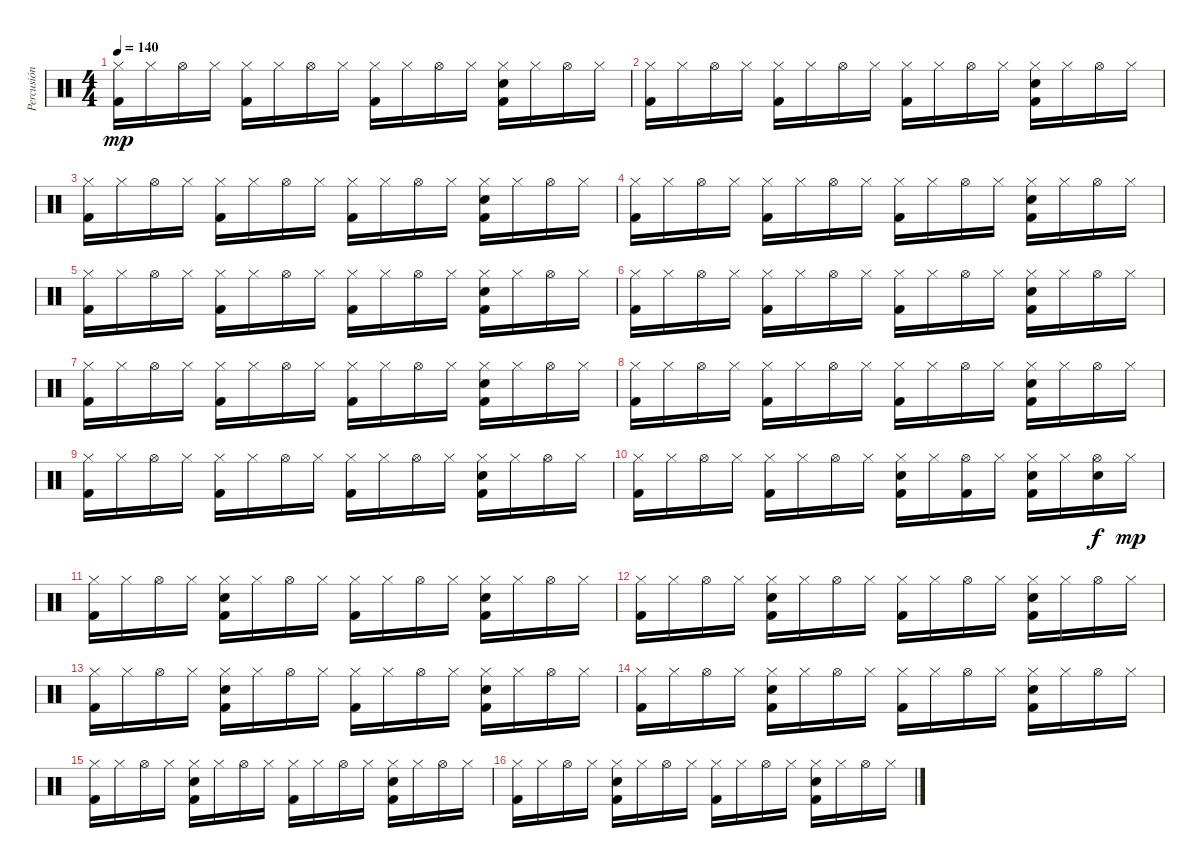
\track ("Percusión" "Percusión") {instrument percussion}
\staff {score}
\articulation defaults
\ts (4 4)
\tempo 140
\clef neutral
\ks c
("Hi-Hat (closed)" "Kick (hit) 2").16{dy mp} "Hi-Hat (closed)".16 "Hi-Hat (open)".16 "Hi-Hat (closed)".16 ("Hi-Hat (closed)" "Kick (hit) 2").16 "Hi-Hat (closed)".16 "Hi-Hat (open)".16 "Hi-Hat (closed)".16 ("Hi-Hat (closed)" "Kick (hit) 2").16 "Hi-Hat (closed)".16 "Hi-Hat (open)".16 "Hi-Hat (closed)".16 ("Hi-Hat (closed)" "Electric Snare (hit)" "Kick (hit) 2").16 "Hi-Hat (closed)".16 "Hi-Hat (open)".16 "Hi-Hat (closed)".16 |
("Hi-Hat (closed)" "Kick (hit) 2").16 "Hi-Hat (closed)".16 "Hi-Hat (open)".16 "Hi-Hat (closed)".16 ("Hi-Hat (closed)" "Kick (hit) 2").16 "Hi-Hat (closed)".16 "Hi-Hat (open)".16 "Hi-Hat (closed)".16 ("Hi-Hat (closed)" "Kick (hit) 2").16 "Hi-Hat (closed)".16 "Hi-Hat (open)".16 "Hi-Hat (closed)".16 ("Hi-Hat (closed)" "Electric Snare (hit)" "Kick (hit) 2").16 "Hi-Hat (closed)".16 "Hi-Hat (open)".16 "Hi-Hat (closed)".16 |
("Hi-Hat (closed)" "Kick (hit) 2").16 "Hi-Hat (closed)".16 "Hi-Hat (open)".16 "Hi-Hat (closed)".16 ("Hi-Hat (closed)" "Kick (hit) 2").16 "Hi-Hat (closed)".16 "Hi-Hat (open)".16 "Hi-Hat (closed)".16 ("Hi-Hat (closed)" "Kick (hit) 2").16 "Hi-Hat (closed)".16 "Hi-Hat (open)".16 "Hi-Hat (closed)".16 ("Hi-Hat (closed)" "Electric Snare (hit)" "Kick (hit) 2").16 "Hi-Hat (closed)".16 "Hi-Hat (open)".16 "Hi-Hat (closed)".16 |
("Hi-Hat (closed)" "Kick (hit) 2").16 "Hi-Hat (closed)".16 "Hi-Hat (open)".16 "Hi-Hat (closed)".16 ("Hi-Hat (closed)" "Kick (hit) 2").16 "Hi-Hat (closed)".16 "Hi-Hat (open)".16 "Hi-Hat (closed)".16 ("Hi-Hat (closed)" "Kick (hit) 2").16 "Hi-Hat (closed)".16 "Hi-Hat (open)".16 "Hi-Hat (closed)".16 ("Hi-Hat (closed)" "Electric Snare (hit)" "Kick (hit) 2").16 "Hi-Hat (closed)".16 "Hi-Hat (open)".16 "Hi-Hat (closed)".16 |
("Hi-Hat (closed)" "Kick (hit) 2").16 "Hi-Hat (closed)".16 "Hi-Hat (open)".16 "Hi-Hat (closed)".16 ("Hi-Hat (closed)" "Kick (hit) 2").16 "Hi-Hat (closed)".16 "Hi-Hat (open)".16 "Hi-Hat (closed)".16 ("Hi-Hat (closed)" "Kick (hit) 2").16 "Hi-Hat (closed)".16 "Hi-Hat (open)".16 "Hi-Hat (closed)".16 ("Hi-Hat (closed)" "Electric Snare (hit)" "Kick (hit) 2").16 "Hi-Hat (closed)".16 "Hi-Hat (open)".16 "Hi-Hat (closed)".16 |
("Hi-Hat (closed)" "Kick (hit) 2").16 "Hi-Hat (closed)".16 "Hi-Hat (open)".16 "Hi-Hat (closed)".16 ("Hi-Hat (closed)" "Kick (hit) 2").16 "Hi-Hat (closed)".16 "Hi-Hat (open)".16 "Hi-Hat (closed)".16 ("Hi-Hat (closed)" "Kick (hit) 2").16 "Hi-Hat (closed)".16 "Hi-Hat (open)".16 "Hi-Hat (closed)".16 ("Hi-Hat (closed)" "Electric Snare (hit)" "Kick (hit) 2").16 "Hi-Hat (closed)".16 "Hi-Hat (open)".16 "Hi-Hat (closed)".16 |
("Hi-Hat (closed)" "Kick (hit) 2").16 "Hi-Hat (closed)".16 "Hi-Hat (open)".16 "Hi-Hat (closed)".16 ("Hi-Hat (closed)" "Kick (hit) 2").16 "Hi-Hat (closed)".16 "Hi-Hat (open)".16 "Hi-Hat (closed)".16 ("Hi-Hat (closed)" "Kick (hit) 2").16 "Hi-Hat (closed)".16 "Hi-Hat (open)".16 "Hi-Hat (closed)".16 ("Hi-Hat (closed)" "Electric Snare (hit)" "Kick (hit) 2").16 "Hi-Hat (closed)".16 "Hi-Hat (open)".16 "Hi-Hat (closed)".16 |
("Hi-Hat (closed)" "Kick (hit) 2").16 "Hi-Hat (closed)".16 "Hi-Hat (open)".16 "Hi-Hat (closed)".16 ("Hi-Hat (closed)" "Kick (hit) 2").16 "Hi-Hat (closed)".16 "Hi-Hat (open)".16 "Hi-Hat (closed)".16 ("Hi-Hat (closed)" "Kick (hit) 2").16 "Hi-Hat (closed)".16 "Hi-Hat (open)".16 "Hi-Hat (closed)".16 ("Hi-Hat (closed)" "Electric Snare (hit)" "Kick (hit) 2").16 "Hi-Hat (closed)".16 "Hi-Hat (open)".16 "Hi-Hat (closed)".16 |
("Hi-Hat (closed)" "Kick (hit) 2").16 "Hi-Hat (closed)".16 "Hi-Hat (open)".16 "Hi-Hat (closed)".16 ("Hi-Hat (closed)" "Kick (hit) 2").16 "Hi-Hat (closed)".16 "Hi-Hat (open)".16 "Hi-Hat (closed)".16 ("Hi-Hat (closed)" "Kick (hit) 2").16 "Hi-Hat (closed)".16 "Hi-Hat (open)".16 "Hi-Hat (closed)".16 ("Hi-Hat (closed)" "Electric Snare (hit)" "Kick (hit) 2").16 "Hi-Hat (closed)".16 "Hi-Hat (open)".16 "Hi-Hat (closed)".16 |
("Hi-Hat (closed)" "Kick (hit) 2").16 "Hi-Hat (closed)".16 "Hi-Hat (open)".16 "Hi-Hat (closed)".16 ("Hi-Hat (closed)" "Kick (hit) 2").16 "Hi-Hat (closed)".16 "Hi-Hat (open)".16 "Hi-Hat (closed)".16 ("Hi-Hat (closed)" "Electric Snare (hit)" "Kick (hit) 2").16 "Hi-Hat (closed)".16 ("Hi-Hat (open)" "Kick (hit) 2").16 "Hi-Hat (closed)".16 ("Hi-Hat (closed)" "Electric Snare (hit)" "Kick (hit) 2").16 "Hi-Hat (closed)".16 ("Hi-Hat (open)" "Electric Snare (hit)").16{dy f} "Hi-Hat (closed)".16{dy mp} |
("Hi-Hat (closed)" "Kick (hit) 2").16 "Hi-Hat (closed)".16 "Hi-Hat (open)".16 "Hi-Hat (closed)".16 ("Hi-Hat (closed)" "Electric Snare (hit)" "Kick (hit) 2").16 "Hi-Hat (closed)".16 "Hi-Hat (open)".16 "Hi-Hat (closed)".16 ("Hi-Hat (closed)" "Kick (hit) 2").16 "Hi-Hat (closed)".16 "Hi-Hat (open)".16 "Hi-Hat (closed)".16 ("Hi-Hat (closed)" "Electric Snare (hit)" "Kick (hit) 2").16 "Hi-Hat (closed)".16 "Hi-Hat (open)".16 "Hi-Hat (closed)".16 |
("Hi-Hat (closed)" "Kick (hit) 2").16 "Hi-Hat (closed)".16 "Hi-Hat (open)".16 "Hi-Hat (closed)".16 ("Hi-Hat (closed)" "Electric Snare (hit)" "Kick (hit) 2").16 "Hi-Hat (closed)".16 "Hi-Hat (open)".16 "Hi-Hat (closed)".16 ("Hi-Hat (closed)" "Kick (hit) 2").16 "Hi-Hat (closed)".16 "Hi-Hat (open)".16 "Hi-Hat (closed)".16 ("Hi-Hat (closed)" "Electric Snare (hit)" "Kick (hit) 2").16 "Hi-Hat (closed)".16 "Hi-Hat (open)".16 "Hi-Hat (closed)".16 |
("Hi-Hat (closed)" "Kick (hit) 2").16 "Hi-Hat (closed)".16 "Hi-Hat (open)".16 "Hi-Hat (closed)".16 ("Hi-Hat (closed)" "Electric Snare (hit)" "Kick (hit) 2").16 "Hi-Hat (closed)".16 "Hi-Hat (open)".16 "Hi-Hat (closed)".16 ("Hi-Hat (closed)" "Kick (hit) 2").16 "Hi-Hat (closed)".16 "Hi-Hat (open)".16 "Hi-Hat (closed)".16 ("Hi-Hat (closed)" "Electric Snare (hit)" "Kick (hit) 2").16 "Hi-Hat (closed)".16 "Hi-Hat (open)".16 "Hi-Hat (closed)".16 |
("Hi-Hat (closed)" "Kick (hit) 2").16 "Hi-Hat (closed)".16 "Hi-Hat (open)".16 "Hi-Hat (closed)".16 ("Hi-Hat (closed)" "Electric Snare (hit)" "Kick (hit) 2").16 "Hi-Hat (closed)".16 "Hi-Hat (open)".16 "Hi-Hat (closed)".16 ("Hi-Hat (closed)" "Kick (hit) 2").16 "Hi-Hat (closed)".16 "Hi-Hat (open)".16 "Hi-Hat (closed)".16 ("Hi-Hat (closed)" "Electric Snare (hit)" "Kick (hit) 2").16 "Hi-Hat (closed)".16 "Hi-Hat (open)".16 "Hi-Hat (closed)".16 |
("Hi-Hat (closed)" "Kick (hit) 2").16 "Hi-Hat (closed)".16 "Hi-Hat (open)".16 "Hi-Hat (closed)".16 ("Hi-Hat (closed)" "Electric Snare (hit)" "Kick (hit) 2").16 "Hi-Hat (closed)".16 "Hi-Hat (open)".16 "Hi-Hat (closed)".16 ("Hi-Hat (closed)" "Kick (hit) 2").16 "Hi-Hat (closed)".16 "Hi-Hat (open)".16 "Hi-Hat (closed)".16 ("Hi-Hat (closed)" "Electric Snare (hit)" "Kick (hit) 2").16 "Hi-Hat (closed)".16 "Hi-Hat (open)".16 "Hi-Hat (closed)".16 |
("Hi-Hat (closed)" "Kick (hit) 2").16 "Hi-Hat (closed)".16 "Hi-Hat (open)".16 "Hi-Hat (closed)".16 ("Hi-Hat (closed)" "Electric Snare (hit)" "Kick (hit) 2").16 "Hi-Hat (closed)".16 "Hi-Hat (open)".16 "Hi-Hat (closed)".16 ("Hi-Hat (closed)" "Kick (hit) 2").16 "Hi-Hat (closed)".16 "Hi-Hat (open)".16 "Hi-Hat (closed)".16 ("Hi-Hat (closed)" "Electric Snare (hit)" "Kick (hit) 2").16 "Hi-Hat (closed)".16 "Hi-Hat (open)".16 "Hi-Hat (closed)".16
